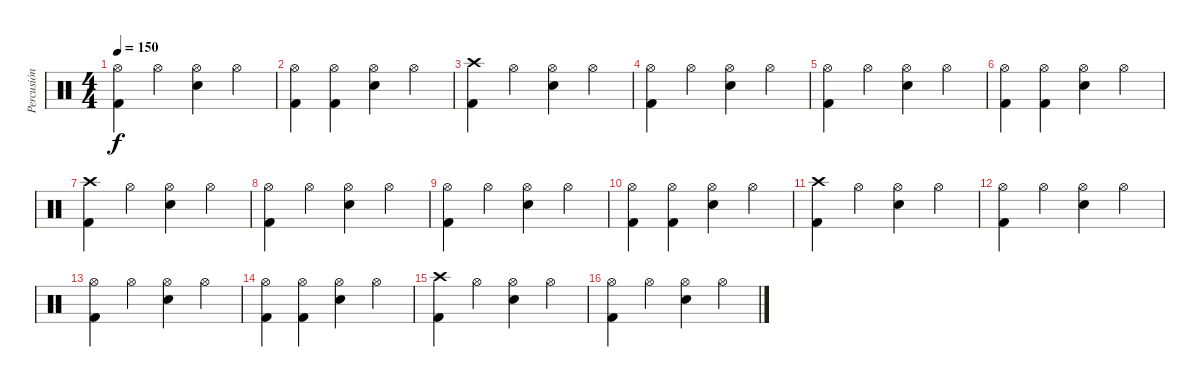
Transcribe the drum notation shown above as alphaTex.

\track ("Percusión" "Percusión") {instrument percussion}
\staff {score}
\articulation defaults
\ts (4 4)
\tempo 150
\clef neutral
\ks c
("Kick (hit) 2" "Hi-Hat (open)").4{dy f} "Hi-Hat (open)".4 ("Snare (hit) 2" "Hi-Hat (open)").4 "Hi-Hat (open)".4 |
("Kick (hit) 2" "Hi-Hat (open)").4 ("Kick (hit) 2" "Hi-Hat (open)").4 ("Snare (hit) 2" "Hi-Hat (open)").4 "Hi-Hat (open)".4 |
("Kick (hit) 2" "Crash high (hit)").4 "Hi-Hat (open)".4 ("Snare (hit) 2" "Hi-Hat (open)").4 "Hi-Hat (open)".4 |
("Kick (hit) 2" "Hi-Hat (open)").4 "Hi-Hat (open)".4 ("Snare (hit) 2" "Hi-Hat (open)").4 "Hi-Hat (open)".4 |
("Kick (hit) 2" "Hi-Hat (open)").4 "Hi-Hat (open)".4 ("Snare (hit) 2" "Hi-Hat (open)").4 "Hi-Hat (open)".4 |
("Kick (hit) 2" "Hi-Hat (open)").4 ("Kick (hit) 2" "Hi-Hat (open)").4 ("Snare (hit) 2" "Hi-Hat (open)").4 "Hi-Hat (open)".4 |
("Kick (hit) 2" "Crash high (hit)").4 "Hi-Hat (open)".4 ("Snare (hit) 2" "Hi-Hat (open)").4 "Hi-Hat (open)".4 |
("Kick (hit) 2" "Hi-Hat (open)").4 "Hi-Hat (open)".4 ("Snare (hit) 2" "Hi-Hat (open)").4 "Hi-Hat (open)".4 |
("Kick (hit) 2" "Hi-Hat (open)").4 "Hi-Hat (open)".4 ("Snare (hit) 2" "Hi-Hat (open)").4 "Hi-Hat (open)".4 |
("Kick (hit) 2" "Hi-Hat (open)").4 ("Kick (hit) 2" "Hi-Hat (open)").4 ("Snare (hit) 2" "Hi-Hat (open)").4 "Hi-Hat (open)".4 |
("Kick (hit) 2" "Crash high (hit)").4 "Hi-Hat (open)".4 ("Snare (hit) 2" "Hi-Hat (open)").4 "Hi-Hat (open)".4 |
("Kick (hit) 2" "Hi-Hat (open)").4 "Hi-Hat (open)".4 ("Snare (hit) 2" "Hi-Hat (open)").4 "Hi-Hat (open)".4 |
("Kick (hit) 2" "Hi-Hat (open)").4 "Hi-Hat (open)".4 ("Snare (hit) 2" "Hi-Hat (open)").4 "Hi-Hat (open)".4 |
("Kick (hit) 2" "Hi-Hat (open)").4 ("Kick (hit) 2" "Hi-Hat (open)").4 ("Snare (hit) 2" "Hi-Hat (open)").4 "Hi-Hat (open)".4 |
("Kick (hit) 2" "Crash high (hit)").4 "Hi-Hat (open)".4 ("Snare (hit) 2" "Hi-Hat (open)").4 "Hi-Hat (open)".4 |
("Kick (hit) 2" "Hi-Hat (open)").4 "Hi-Hat (open)".4 ("Snare (hit) 2" "Hi-Hat (open)").4 "Hi-Hat (open)".4
